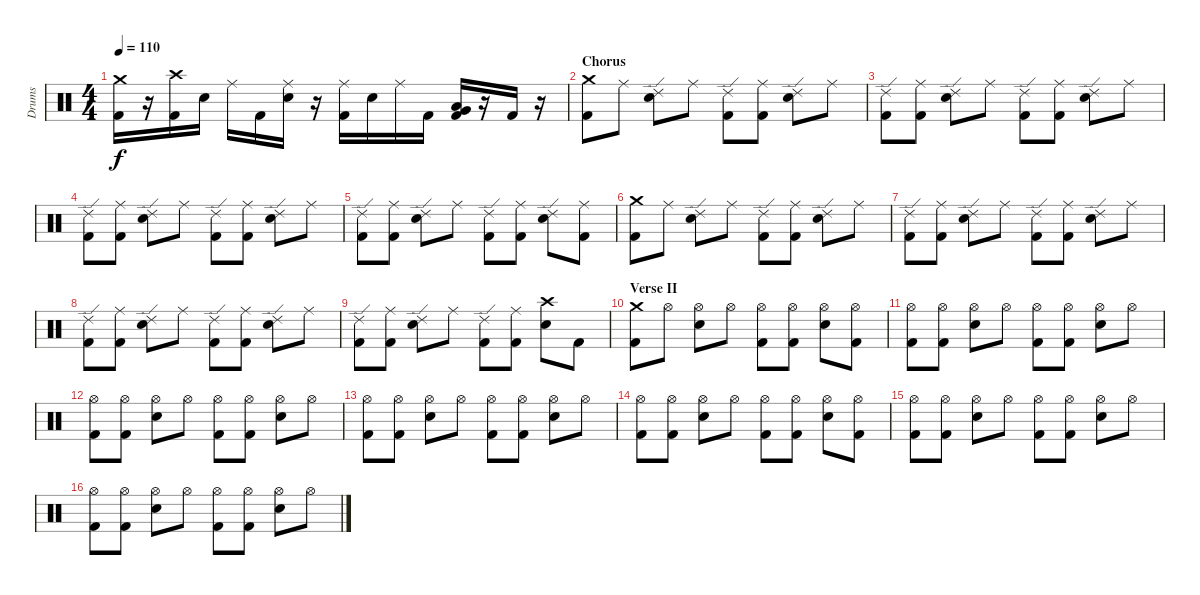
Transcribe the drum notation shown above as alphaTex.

\track ("Drums" "Drums") {instrument percussion}
\staff {score}
\articulation defaults
\ts (4 4)
\tempo 110
\clef neutral
\ks c
("Crash medium (hit)" "Kick (hit) 2").16{dy f} r.16 ("Crash high (hit)" "Kick (hit) 2").16 "Electric Snare (hit)".16 "Ride (middle)".16 "Kick (hit) 2".16 ("Ride (middle)" "Electric Snare (hit)").16 r.16 ("Ride (middle)" "Kick (hit) 2").16 "Electric Snare (hit)".16 "Ride (middle)".16 "Kick (hit) 2".16 ("Very Low Tom (hit)" "Low Floor Tom (hit)" "Kick (hit) 2").16 r.16 "Kick (hit) 2".16 r.16 |
\section ("" "Chorus")
("Crash medium (hit)" "Kick (hit) 2").8 "Ride (middle)".8 ("Ride (edge) 2" "Electric Snare (hit)").8 "Ride (middle)".8 ("Ride (edge) 2" "Kick (hit) 2").8 ("Ride (middle)" "Kick (hit) 2").8 ("Ride (edge) 2" "Electric Snare (hit)").8 "Ride (middle)".8 |
("Ride (edge) 2" "Kick (hit) 2").8 ("Ride (middle)" "Kick (hit) 2").8 ("Ride (edge) 2" "Electric Snare (hit)").8 "Ride (middle)".8 ("Ride (edge) 2" "Kick (hit) 2").8 ("Ride (middle)" "Kick (hit) 2").8 ("Ride (edge) 2" "Electric Snare (hit)").8 "Ride (middle)".8 |
("Ride (edge) 2" "Kick (hit) 2").8 ("Ride (middle)" "Kick (hit) 2").8 ("Ride (edge) 2" "Electric Snare (hit)").8 "Ride (middle)".8 ("Ride (edge) 2" "Kick (hit) 2").8 ("Ride (middle)" "Kick (hit) 2").8 ("Ride (edge) 2" "Electric Snare (hit)").8 "Ride (middle)".8 |
("Ride (edge) 2" "Kick (hit) 2").8 ("Ride (middle)" "Kick (hit) 2").8 ("Ride (edge) 2" "Electric Snare (hit)").8 "Ride (middle)".8 ("Ride (edge) 2" "Kick (hit) 2").8 ("Ride (middle)" "Kick (hit) 2").8 ("Ride (edge) 2" "Electric Snare (hit)").8 ("Ride (middle)" "Kick (hit) 2").8 |
("Crash medium (hit)" "Kick (hit) 2").8 "Ride (middle)".8 ("Ride (edge) 2" "Electric Snare (hit)").8 "Ride (middle)".8 ("Ride (edge) 2" "Kick (hit) 2").8 ("Ride (middle)" "Kick (hit) 2").8 ("Ride (edge) 2" "Electric Snare (hit)").8 "Ride (middle)".8 |
("Ride (edge) 2" "Kick (hit) 2").8 ("Ride (middle)" "Kick (hit) 2").8 ("Ride (edge) 2" "Electric Snare (hit)").8 "Ride (middle)".8 ("Ride (edge) 2" "Kick (hit) 2").8 ("Ride (middle)" "Kick (hit) 2").8 ("Ride (edge) 2" "Electric Snare (hit)").8 "Ride (middle)".8 |
("Ride (edge) 2" "Kick (hit) 2").8 ("Ride (middle)" "Kick (hit) 2").8 ("Ride (edge) 2" "Electric Snare (hit)").8 "Ride (middle)".8 ("Ride (edge) 2" "Kick (hit) 2").8 ("Ride (middle)" "Kick (hit) 2").8 ("Ride (edge) 2" "Electric Snare (hit)").8 "Ride (middle)".8 |
("Ride (edge) 2" "Kick (hit) 2").8 ("Ride (middle)" "Kick (hit) 2").8 ("Ride (edge) 2" "Electric Snare (hit)").8 "Ride (middle)".8 ("Ride (edge) 2" "Kick (hit) 2").8 ("Ride (middle)" "Kick (hit) 2").8 ("Crash high (hit)" "Electric Snare (hit)").8 "Kick (hit) 2".8 |
\section ("" "Verse II")
("Crash medium (hit)" "Kick (hit) 2").8 "Hi-Hat (open)".8 ("Hi-Hat (open)" "Electric Snare (hit)").8 "Hi-Hat (open)".8 ("Hi-Hat (open)" "Kick (hit) 2").8 ("Hi-Hat (open)" "Kick (hit) 2").8 ("Hi-Hat (open)" "Electric Snare (hit)").8 ("Hi-Hat (open)" "Kick (hit) 2").8 |
("Hi-Hat (open)" "Kick (hit) 2").8 ("Hi-Hat (open)" "Kick (hit) 2").8 ("Hi-Hat (open)" "Electric Snare (hit)").8 "Hi-Hat (open)".8 ("Hi-Hat (open)" "Kick (hit) 2").8 ("Hi-Hat (open)" "Kick (hit) 2").8 ("Hi-Hat (open)" "Electric Snare (hit)").8 "Hi-Hat (open)".8 |
("Hi-Hat (open)" "Kick (hit) 2").8 ("Hi-Hat (open)" "Kick (hit) 2").8 ("Hi-Hat (open)" "Electric Snare (hit)").8 "Hi-Hat (open)".8 ("Hi-Hat (open)" "Kick (hit) 2").8 ("Hi-Hat (open)" "Kick (hit) 2").8 ("Hi-Hat (open)" "Electric Snare (hit)").8 "Hi-Hat (open)".8 |
("Hi-Hat (open)" "Kick (hit) 2").8 ("Hi-Hat (open)" "Kick (hit) 2").8 ("Hi-Hat (open)" "Electric Snare (hit)").8 "Hi-Hat (open)".8 ("Hi-Hat (open)" "Kick (hit) 2").8 ("Hi-Hat (open)" "Kick (hit) 2").8 ("Hi-Hat (open)" "Electric Snare (hit)").8 "Hi-Hat (open)".8 |
("Hi-Hat (open)" "Kick (hit) 2").8 ("Hi-Hat (open)" "Kick (hit) 2").8 ("Hi-Hat (open)" "Electric Snare (hit)").8 "Hi-Hat (open)".8 ("Hi-Hat (open)" "Kick (hit) 2").8 ("Hi-Hat (open)" "Kick (hit) 2").8 ("Hi-Hat (open)" "Electric Snare (hit)").8 ("Hi-Hat (open)" "Kick (hit) 2").8 |
("Hi-Hat (open)" "Kick (hit) 2").8 ("Hi-Hat (open)" "Kick (hit) 2").8 ("Hi-Hat (open)" "Electric Snare (hit)").8 "Hi-Hat (open)".8 ("Hi-Hat (open)" "Kick (hit) 2").8 ("Hi-Hat (open)" "Kick (hit) 2").8 ("Hi-Hat (open)" "Electric Snare (hit)").8 "Hi-Hat (open)".8 |
("Hi-Hat (open)" "Kick (hit) 2").8 ("Hi-Hat (open)" "Kick (hit) 2").8 ("Hi-Hat (open)" "Electric Snare (hit)").8 "Hi-Hat (open)".8 ("Hi-Hat (open)" "Kick (hit) 2").8 ("Hi-Hat (open)" "Kick (hit) 2").8 ("Hi-Hat (open)" "Electric Snare (hit)").8 "Hi-Hat (open)".8
